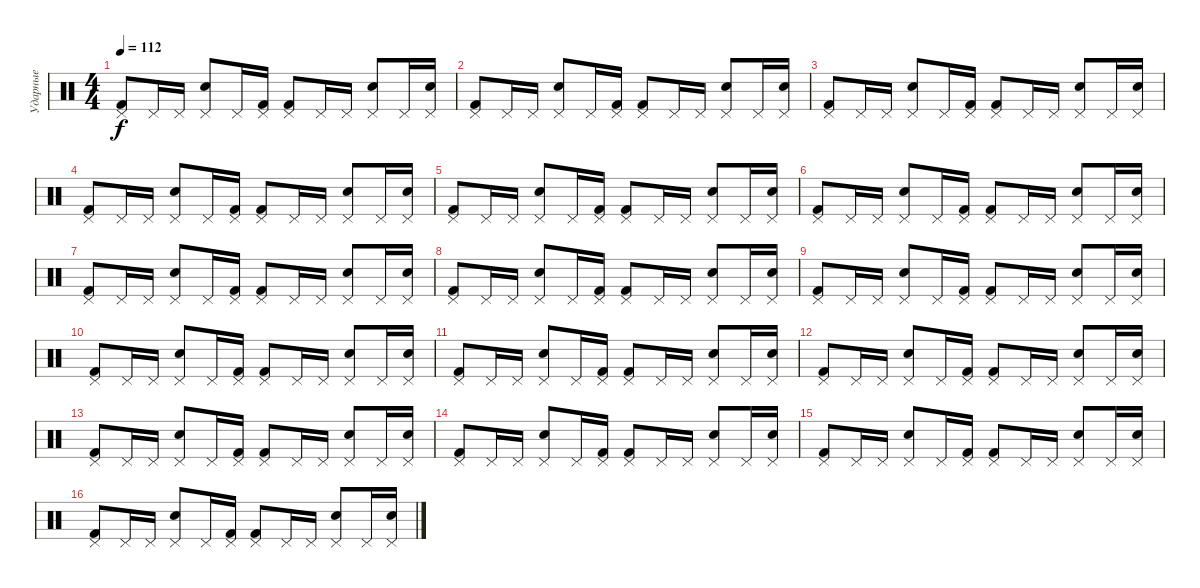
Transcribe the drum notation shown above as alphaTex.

\track ("Ударные" "Ударные") {instrument percussion}
\staff {score}
\articulation defaults
\ts (4 4)
\tempo 112
\clef neutral
\ks c
("Kick (hit) 2" "Pedal Hi-Hat (hit)").8{dy f} "Pedal Hi-Hat (hit)".16 "Pedal Hi-Hat (hit)".16 ("Pedal Hi-Hat (hit)" "Snare (hit) 2").8 "Pedal Hi-Hat (hit)".16 ("Pedal Hi-Hat (hit)" "Kick (hit) 2").16 ("Kick (hit) 2" "Pedal Hi-Hat (hit)").8 "Pedal Hi-Hat (hit)".16 "Pedal Hi-Hat (hit)".16 ("Snare (hit) 2" "Pedal Hi-Hat (hit)").8 "Pedal Hi-Hat (hit)".16 ("Pedal Hi-Hat (hit)" "Snare (hit) 2").16 |
("Kick (hit) 2" "Pedal Hi-Hat (hit)").8 "Pedal Hi-Hat (hit)".16 "Pedal Hi-Hat (hit)".16 ("Pedal Hi-Hat (hit)" "Snare (hit) 2").8 "Pedal Hi-Hat (hit)".16 ("Pedal Hi-Hat (hit)" "Kick (hit) 2").16 ("Kick (hit) 2" "Pedal Hi-Hat (hit)").8 "Pedal Hi-Hat (hit)".16 "Pedal Hi-Hat (hit)".16 ("Snare (hit) 2" "Pedal Hi-Hat (hit)").8 "Pedal Hi-Hat (hit)".16 ("Pedal Hi-Hat (hit)" "Snare (hit) 2").16 |
("Kick (hit) 2" "Pedal Hi-Hat (hit)").8 "Pedal Hi-Hat (hit)".16 "Pedal Hi-Hat (hit)".16 ("Pedal Hi-Hat (hit)" "Snare (hit) 2").8 "Pedal Hi-Hat (hit)".16 ("Pedal Hi-Hat (hit)" "Kick (hit) 2").16 ("Kick (hit) 2" "Pedal Hi-Hat (hit)").8 "Pedal Hi-Hat (hit)".16 "Pedal Hi-Hat (hit)".16 ("Snare (hit) 2" "Pedal Hi-Hat (hit)").8 "Pedal Hi-Hat (hit)".16 ("Pedal Hi-Hat (hit)" "Snare (hit) 2").16 |
("Kick (hit) 2" "Pedal Hi-Hat (hit)").8 "Pedal Hi-Hat (hit)".16 "Pedal Hi-Hat (hit)".16 ("Pedal Hi-Hat (hit)" "Snare (hit) 2").8 "Pedal Hi-Hat (hit)".16 ("Pedal Hi-Hat (hit)" "Kick (hit) 2").16 ("Kick (hit) 2" "Pedal Hi-Hat (hit)").8 "Pedal Hi-Hat (hit)".16 "Pedal Hi-Hat (hit)".16 ("Snare (hit) 2" "Pedal Hi-Hat (hit)").8 "Pedal Hi-Hat (hit)".16 ("Pedal Hi-Hat (hit)" "Snare (hit) 2").16 |
("Kick (hit) 2" "Pedal Hi-Hat (hit)").8 "Pedal Hi-Hat (hit)".16 "Pedal Hi-Hat (hit)".16 ("Pedal Hi-Hat (hit)" "Snare (hit) 2").8 "Pedal Hi-Hat (hit)".16 ("Pedal Hi-Hat (hit)" "Kick (hit) 2").16 ("Kick (hit) 2" "Pedal Hi-Hat (hit)").8 "Pedal Hi-Hat (hit)".16 "Pedal Hi-Hat (hit)".16 ("Snare (hit) 2" "Pedal Hi-Hat (hit)").8 "Pedal Hi-Hat (hit)".16 ("Pedal Hi-Hat (hit)" "Snare (hit) 2").16 |
("Kick (hit) 2" "Pedal Hi-Hat (hit)").8 "Pedal Hi-Hat (hit)".16 "Pedal Hi-Hat (hit)".16 ("Pedal Hi-Hat (hit)" "Snare (hit) 2").8 "Pedal Hi-Hat (hit)".16 ("Pedal Hi-Hat (hit)" "Kick (hit) 2").16 ("Kick (hit) 2" "Pedal Hi-Hat (hit)").8 "Pedal Hi-Hat (hit)".16 "Pedal Hi-Hat (hit)".16 ("Snare (hit) 2" "Pedal Hi-Hat (hit)").8 "Pedal Hi-Hat (hit)".16 ("Pedal Hi-Hat (hit)" "Snare (hit) 2").16 |
("Kick (hit) 2" "Pedal Hi-Hat (hit)").8 "Pedal Hi-Hat (hit)".16 "Pedal Hi-Hat (hit)".16 ("Pedal Hi-Hat (hit)" "Snare (hit) 2").8 "Pedal Hi-Hat (hit)".16 ("Pedal Hi-Hat (hit)" "Kick (hit) 2").16 ("Kick (hit) 2" "Pedal Hi-Hat (hit)").8 "Pedal Hi-Hat (hit)".16 "Pedal Hi-Hat (hit)".16 ("Snare (hit) 2" "Pedal Hi-Hat (hit)").8 "Pedal Hi-Hat (hit)".16 ("Pedal Hi-Hat (hit)" "Snare (hit) 2").16 |
("Kick (hit) 2" "Pedal Hi-Hat (hit)").8 "Pedal Hi-Hat (hit)".16 "Pedal Hi-Hat (hit)".16 ("Pedal Hi-Hat (hit)" "Snare (hit) 2").8 "Pedal Hi-Hat (hit)".16 ("Pedal Hi-Hat (hit)" "Kick (hit) 2").16 ("Kick (hit) 2" "Pedal Hi-Hat (hit)").8 "Pedal Hi-Hat (hit)".16 "Pedal Hi-Hat (hit)".16 ("Snare (hit) 2" "Pedal Hi-Hat (hit)").8 "Pedal Hi-Hat (hit)".16 ("Pedal Hi-Hat (hit)" "Snare (hit) 2").16 |
("Kick (hit) 2" "Pedal Hi-Hat (hit)").8 "Pedal Hi-Hat (hit)".16 "Pedal Hi-Hat (hit)".16 ("Pedal Hi-Hat (hit)" "Snare (hit) 2").8 "Pedal Hi-Hat (hit)".16 ("Pedal Hi-Hat (hit)" "Kick (hit) 2").16 ("Kick (hit) 2" "Pedal Hi-Hat (hit)").8 "Pedal Hi-Hat (hit)".16 "Pedal Hi-Hat (hit)".16 ("Snare (hit) 2" "Pedal Hi-Hat (hit)").8 "Pedal Hi-Hat (hit)".16 ("Pedal Hi-Hat (hit)" "Snare (hit) 2").16 |
("Kick (hit) 2" "Pedal Hi-Hat (hit)").8 "Pedal Hi-Hat (hit)".16 "Pedal Hi-Hat (hit)".16 ("Pedal Hi-Hat (hit)" "Snare (hit) 2").8 "Pedal Hi-Hat (hit)".16 ("Pedal Hi-Hat (hit)" "Kick (hit) 2").16 ("Kick (hit) 2" "Pedal Hi-Hat (hit)").8 "Pedal Hi-Hat (hit)".16 "Pedal Hi-Hat (hit)".16 ("Snare (hit) 2" "Pedal Hi-Hat (hit)").8 "Pedal Hi-Hat (hit)".16 ("Pedal Hi-Hat (hit)" "Snare (hit) 2").16 |
("Kick (hit) 2" "Pedal Hi-Hat (hit)").8 "Pedal Hi-Hat (hit)".16 "Pedal Hi-Hat (hit)".16 ("Pedal Hi-Hat (hit)" "Snare (hit) 2").8 "Pedal Hi-Hat (hit)".16 ("Pedal Hi-Hat (hit)" "Kick (hit) 2").16 ("Kick (hit) 2" "Pedal Hi-Hat (hit)").8 "Pedal Hi-Hat (hit)".16 "Pedal Hi-Hat (hit)".16 ("Snare (hit) 2" "Pedal Hi-Hat (hit)").8 "Pedal Hi-Hat (hit)".16 ("Pedal Hi-Hat (hit)" "Snare (hit) 2").16 |
("Kick (hit) 2" "Pedal Hi-Hat (hit)").8 "Pedal Hi-Hat (hit)".16 "Pedal Hi-Hat (hit)".16 ("Pedal Hi-Hat (hit)" "Snare (hit) 2").8 "Pedal Hi-Hat (hit)".16 ("Pedal Hi-Hat (hit)" "Kick (hit) 2").16 ("Kick (hit) 2" "Pedal Hi-Hat (hit)").8 "Pedal Hi-Hat (hit)".16 "Pedal Hi-Hat (hit)".16 ("Snare (hit) 2" "Pedal Hi-Hat (hit)").8 "Pedal Hi-Hat (hit)".16 ("Pedal Hi-Hat (hit)" "Snare (hit) 2").16 |
("Kick (hit) 2" "Pedal Hi-Hat (hit)").8 "Pedal Hi-Hat (hit)".16 "Pedal Hi-Hat (hit)".16 ("Pedal Hi-Hat (hit)" "Snare (hit) 2").8 "Pedal Hi-Hat (hit)".16 ("Pedal Hi-Hat (hit)" "Kick (hit) 2").16 ("Kick (hit) 2" "Pedal Hi-Hat (hit)").8 "Pedal Hi-Hat (hit)".16 "Pedal Hi-Hat (hit)".16 ("Snare (hit) 2" "Pedal Hi-Hat (hit)").8 "Pedal Hi-Hat (hit)".16 ("Pedal Hi-Hat (hit)" "Snare (hit) 2").16 |
("Kick (hit) 2" "Pedal Hi-Hat (hit)").8 "Pedal Hi-Hat (hit)".16 "Pedal Hi-Hat (hit)".16 ("Pedal Hi-Hat (hit)" "Snare (hit) 2").8 "Pedal Hi-Hat (hit)".16 ("Pedal Hi-Hat (hit)" "Kick (hit) 2").16 ("Kick (hit) 2" "Pedal Hi-Hat (hit)").8 "Pedal Hi-Hat (hit)".16 "Pedal Hi-Hat (hit)".16 ("Snare (hit) 2" "Pedal Hi-Hat (hit)").8 "Pedal Hi-Hat (hit)".16 ("Pedal Hi-Hat (hit)" "Snare (hit) 2").16 |
("Kick (hit) 2" "Pedal Hi-Hat (hit)").8 "Pedal Hi-Hat (hit)".16 "Pedal Hi-Hat (hit)".16 ("Pedal Hi-Hat (hit)" "Snare (hit) 2").8 "Pedal Hi-Hat (hit)".16 ("Pedal Hi-Hat (hit)" "Kick (hit) 2").16 ("Kick (hit) 2" "Pedal Hi-Hat (hit)").8 "Pedal Hi-Hat (hit)".16 "Pedal Hi-Hat (hit)".16 ("Snare (hit) 2" "Pedal Hi-Hat (hit)").8 "Pedal Hi-Hat (hit)".16 ("Pedal Hi-Hat (hit)" "Snare (hit) 2").16 |
("Kick (hit) 2" "Pedal Hi-Hat (hit)").8 "Pedal Hi-Hat (hit)".16 "Pedal Hi-Hat (hit)".16 ("Pedal Hi-Hat (hit)" "Snare (hit) 2").8 "Pedal Hi-Hat (hit)".16 ("Pedal Hi-Hat (hit)" "Kick (hit) 2").16 ("Kick (hit) 2" "Pedal Hi-Hat (hit)").8 "Pedal Hi-Hat (hit)".16 "Pedal Hi-Hat (hit)".16 ("Snare (hit) 2" "Pedal Hi-Hat (hit)").8 "Pedal Hi-Hat (hit)".16 ("Pedal Hi-Hat (hit)" "Snare (hit) 2").16
